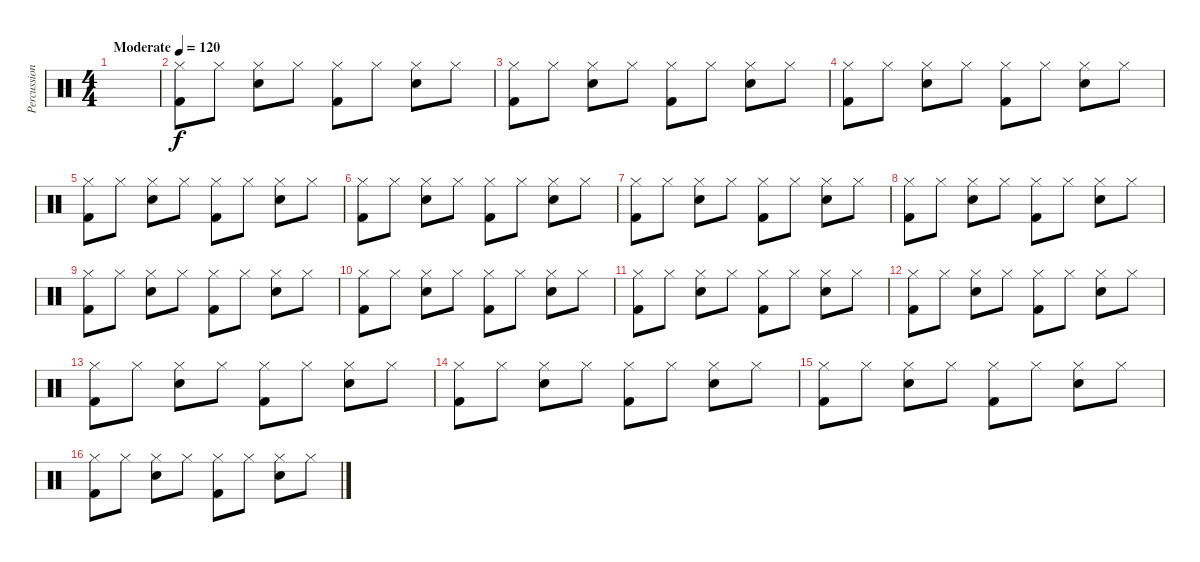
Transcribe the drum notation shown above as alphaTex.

\track ("Percussions" "Percussion") {instrument percussion}
\staff {score}
\articulation defaults
\ts (4 4)
\tempo (120 "Moderate")
\clef neutral
\ks c
|
("Hi-Hat (closed)" "Kick (hit) 2").8 "Hi-Hat (closed)".8 ("Hi-Hat (closed)" "Electric Snare (hit)").8 "Hi-Hat (closed)".8 ("Hi-Hat (closed)" "Kick (hit) 2").8 "Hi-Hat (closed)".8 ("Hi-Hat (closed)" "Electric Snare (hit)").8 "Hi-Hat (closed)".8 |
("Hi-Hat (closed)" "Kick (hit) 2").8 "Hi-Hat (closed)".8 ("Hi-Hat (closed)" "Electric Snare (hit)").8 "Hi-Hat (closed)".8 ("Hi-Hat (closed)" "Kick (hit) 2").8 "Hi-Hat (closed)".8 ("Hi-Hat (closed)" "Electric Snare (hit)").8 "Hi-Hat (closed)".8 |
("Hi-Hat (closed)" "Kick (hit) 2").8 "Hi-Hat (closed)".8 ("Hi-Hat (closed)" "Electric Snare (hit)").8 "Hi-Hat (closed)".8 ("Hi-Hat (closed)" "Kick (hit) 2").8 "Hi-Hat (closed)".8 ("Hi-Hat (closed)" "Electric Snare (hit)").8 "Hi-Hat (closed)".8 |
("Hi-Hat (closed)" "Kick (hit) 2").8 "Hi-Hat (closed)".8 ("Hi-Hat (closed)" "Electric Snare (hit)").8 "Hi-Hat (closed)".8 ("Hi-Hat (closed)" "Kick (hit) 2").8 "Hi-Hat (closed)".8 ("Hi-Hat (closed)" "Electric Snare (hit)").8 "Hi-Hat (closed)".8 |
("Hi-Hat (closed)" "Kick (hit) 2").8 "Hi-Hat (closed)".8 ("Hi-Hat (closed)" "Electric Snare (hit)").8 "Hi-Hat (closed)".8 ("Hi-Hat (closed)" "Kick (hit) 2").8 "Hi-Hat (closed)".8 ("Hi-Hat (closed)" "Electric Snare (hit)").8 "Hi-Hat (closed)".8 |
("Hi-Hat (closed)" "Kick (hit) 2").8 "Hi-Hat (closed)".8 ("Hi-Hat (closed)" "Electric Snare (hit)").8 "Hi-Hat (closed)".8 ("Hi-Hat (closed)" "Kick (hit) 2").8 "Hi-Hat (closed)".8 ("Hi-Hat (closed)" "Electric Snare (hit)").8 "Hi-Hat (closed)".8 |
("Hi-Hat (closed)" "Kick (hit) 2").8 "Hi-Hat (closed)".8 ("Hi-Hat (closed)" "Electric Snare (hit)").8 "Hi-Hat (closed)".8 ("Hi-Hat (closed)" "Kick (hit) 2").8 "Hi-Hat (closed)".8 ("Hi-Hat (closed)" "Electric Snare (hit)").8 "Hi-Hat (closed)".8 |
("Hi-Hat (closed)" "Kick (hit) 2").8 "Hi-Hat (closed)".8 ("Hi-Hat (closed)" "Electric Snare (hit)").8 "Hi-Hat (closed)".8 ("Hi-Hat (closed)" "Kick (hit) 2").8 "Hi-Hat (closed)".8 ("Hi-Hat (closed)" "Electric Snare (hit)").8 "Hi-Hat (closed)".8 |
("Hi-Hat (closed)" "Kick (hit) 2").8 "Hi-Hat (closed)".8 ("Hi-Hat (closed)" "Electric Snare (hit)").8 "Hi-Hat (closed)".8 ("Hi-Hat (closed)" "Kick (hit) 2").8 "Hi-Hat (closed)".8 ("Hi-Hat (closed)" "Electric Snare (hit)").8 "Hi-Hat (closed)".8 |
("Hi-Hat (closed)" "Kick (hit) 2").8 "Hi-Hat (closed)".8 ("Hi-Hat (closed)" "Electric Snare (hit)").8 "Hi-Hat (closed)".8 ("Hi-Hat (closed)" "Kick (hit) 2").8 "Hi-Hat (closed)".8 ("Hi-Hat (closed)" "Electric Snare (hit)").8 "Hi-Hat (closed)".8 |
("Hi-Hat (closed)" "Kick (hit) 2").8 "Hi-Hat (closed)".8 ("Hi-Hat (closed)" "Electric Snare (hit)").8 "Hi-Hat (closed)".8 ("Hi-Hat (closed)" "Kick (hit) 2").8 "Hi-Hat (closed)".8 ("Hi-Hat (closed)" "Electric Snare (hit)").8 "Hi-Hat (closed)".8 |
("Hi-Hat (closed)" "Kick (hit) 2").8 "Hi-Hat (closed)".8 ("Hi-Hat (closed)" "Electric Snare (hit)").8 "Hi-Hat (closed)".8 ("Hi-Hat (closed)" "Kick (hit) 2").8 "Hi-Hat (closed)".8 ("Hi-Hat (closed)" "Electric Snare (hit)").8 "Hi-Hat (closed)".8 |
("Hi-Hat (closed)" "Kick (hit) 2").8 "Hi-Hat (closed)".8 ("Hi-Hat (closed)" "Electric Snare (hit)").8 "Hi-Hat (closed)".8 ("Hi-Hat (closed)" "Kick (hit) 2").8 "Hi-Hat (closed)".8 ("Hi-Hat (closed)" "Electric Snare (hit)").8 "Hi-Hat (closed)".8 |
("Hi-Hat (closed)" "Kick (hit) 2").8 "Hi-Hat (closed)".8 ("Hi-Hat (closed)" "Electric Snare (hit)").8 "Hi-Hat (closed)".8 ("Hi-Hat (closed)" "Kick (hit) 2").8 "Hi-Hat (closed)".8 ("Hi-Hat (closed)" "Electric Snare (hit)").8 "Hi-Hat (closed)".8 |
("Hi-Hat (closed)" "Kick (hit) 2").8 "Hi-Hat (closed)".8 ("Hi-Hat (closed)" "Electric Snare (hit)").8 "Hi-Hat (closed)".8 ("Hi-Hat (closed)" "Kick (hit) 2").8 "Hi-Hat (closed)".8 ("Hi-Hat (closed)" "Electric Snare (hit)").8 "Hi-Hat (closed)".8
